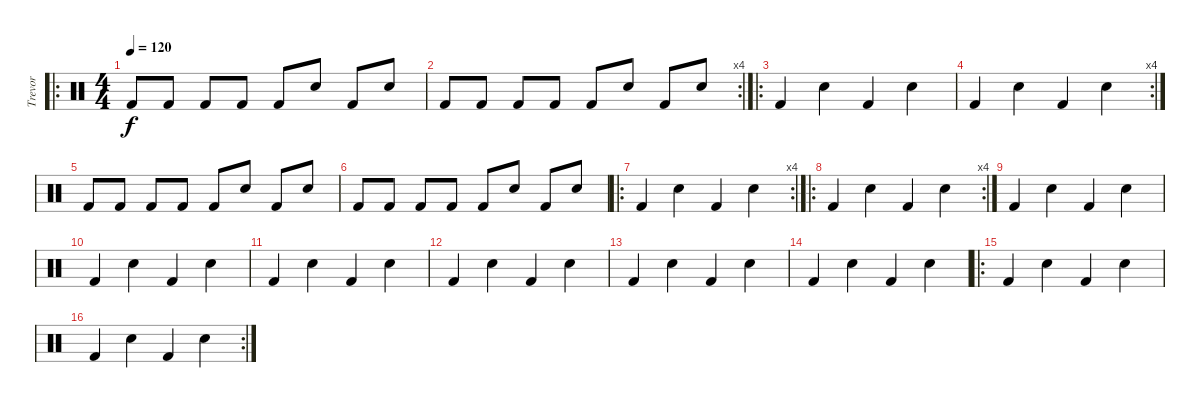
\track ("Trevor" "Trevor") {instrument percussion}
\staff {score}
\articulation defaults
\ro
\ts (4 4)
\tempo 120
\clef neutral
\ks c "Kick (hit) 2".8{dy f} "Kick (hit) 2".8 "Kick (hit) 2".8 "Kick (hit) 2".8 "Kick (hit) 2".8 "Electric Snare (hit)".8 "Kick (hit) 2".8 "Electric Snare (hit)".8
|
\rc 4 "Kick (hit) 2".8 "Kick (hit) 2".8 "Kick (hit) 2".8 "Kick (hit) 2".8 "Kick (hit) 2".8 "Electric Snare (hit)".8 "Kick (hit) 2".8 "Electric Snare (hit)".8
|
\ro "Kick (hit) 2".4 "Electric Snare (hit)".4 "Kick (hit) 2".4 "Electric Snare (hit)".4
|
\rc 4 "Kick (hit) 2".4 "Electric Snare (hit)".4 "Kick (hit) 2".4 "Electric Snare (hit)".4
|
"Kick (hit) 2".8 "Kick (hit) 2".8 "Kick (hit) 2".8 "Kick (hit) 2".8 "Kick (hit) 2".8 "Electric Snare (hit)".8 "Kick (hit) 2".8 "Electric Snare (hit)".8 |
"Kick (hit) 2".8 "Kick (hit) 2".8 "Kick (hit) 2".8 "Kick (hit) 2".8 "Kick (hit) 2".8 "Electric Snare (hit)".8 "Kick (hit) 2".8 "Electric Snare (hit)".8 |
\ro
\rc 4 "Kick (hit) 2".4 "Electric Snare (hit)".4 "Kick (hit) 2".4 "Electric Snare (hit)".4
|
\ro
\rc 4 "Kick (hit) 2".4 "Electric Snare (hit)".4 "Kick (hit) 2".4 "Electric Snare (hit)".4
|
"Kick (hit) 2".4 "Electric Snare (hit)".4 "Kick (hit) 2".4 "Electric Snare (hit)".4 |
"Kick (hit) 2".4 "Electric Snare (hit)".4 "Kick (hit) 2".4 "Electric Snare (hit)".4 |
"Kick (hit) 2".4 "Electric Snare (hit)".4 "Kick (hit) 2".4 "Electric Snare (hit)".4 |
"Kick (hit) 2".4 "Electric Snare (hit)".4 "Kick (hit) 2".4 "Electric Snare (hit)".4 |
"Kick (hit) 2".4 "Electric Snare (hit)".4 "Kick (hit) 2".4 "Electric Snare (hit)".4 |
"Kick (hit) 2".4 "Electric Snare (hit)".4 "Kick (hit) 2".4 "Electric Snare (hit)".4 |
\ro "Kick (hit) 2".4 "Electric Snare (hit)".4 "Kick (hit) 2".4 "Electric Snare (hit)".4
|
\rc 2 "Kick (hit) 2".4 "Electric Snare (hit)".4 "Kick (hit) 2".4 "Electric Snare (hit)".4
